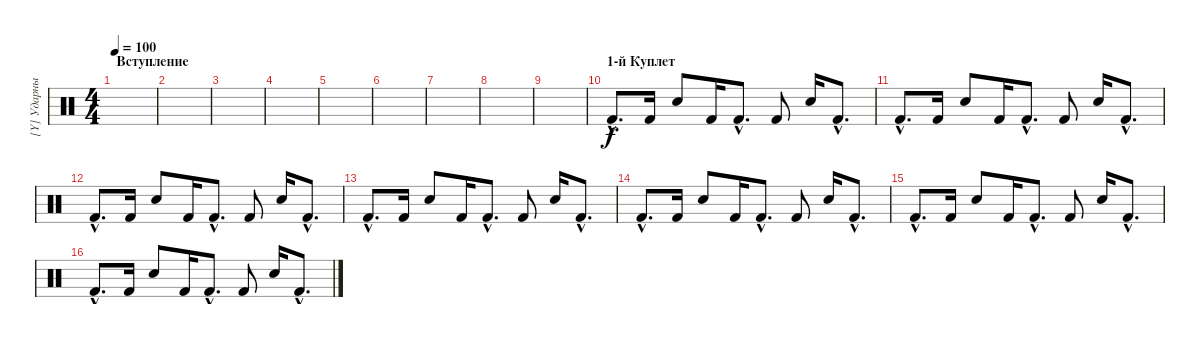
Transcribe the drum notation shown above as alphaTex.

\track ("[Y] Ударные [Stewart]" "[Y] Ударны") {instrument percussion}
\staff {score}
\articulation defaults
\ts (4 4)
\section ("" "Вступление")
\tempo 100
\clef neutral
\ks c
|
|
|
|
|
|
|
|
|
\section ("" "1-й Куплет")
"Kick (hit) 2"{hac}.8{d} "Kick (hit) 2".16 "Electric Snare (hit)".8 "Kick (hit) 2".16 "Kick (hit) 2"{hac}.8{d} "Kick (hit) 2".8 "Electric Snare (hit)".16 "Kick (hit) 2"{hac}.8{d} |
"Kick (hit) 2"{hac}.8{d} "Kick (hit) 2".16 "Electric Snare (hit)".8 "Kick (hit) 2".16 "Kick (hit) 2"{hac}.8{d} "Kick (hit) 2".8 "Electric Snare (hit)".16 "Kick (hit) 2"{hac}.8{d} |
"Kick (hit) 2"{hac}.8{d} "Kick (hit) 2".16 "Electric Snare (hit)".8 "Kick (hit) 2".16 "Kick (hit) 2"{hac}.8{d} "Kick (hit) 2".8 "Electric Snare (hit)".16 "Kick (hit) 2"{hac}.8{d} |
"Kick (hit) 2"{hac}.8{d} "Kick (hit) 2".16 "Electric Snare (hit)".8 "Kick (hit) 2".16 "Kick (hit) 2"{hac}.8{d} "Kick (hit) 2".8 "Electric Snare (hit)".16 "Kick (hit) 2"{hac}.8{d} |
"Kick (hit) 2"{hac}.8{d} "Kick (hit) 2".16 "Electric Snare (hit)".8 "Kick (hit) 2".16 "Kick (hit) 2"{hac}.8{d} "Kick (hit) 2".8 "Electric Snare (hit)".16 "Kick (hit) 2"{hac}.8{d} |
"Kick (hit) 2"{hac}.8{d} "Kick (hit) 2".16 "Electric Snare (hit)".8 "Kick (hit) 2".16 "Kick (hit) 2"{hac}.8{d} "Kick (hit) 2".8 "Electric Snare (hit)".16 "Kick (hit) 2"{hac}.8{d} |
"Kick (hit) 2"{hac}.8{d} "Kick (hit) 2".16 "Electric Snare (hit)".8 "Kick (hit) 2".16 "Kick (hit) 2"{hac}.8{d} "Kick (hit) 2".8 "Electric Snare (hit)".16 "Kick (hit) 2"{hac}.8{d}
